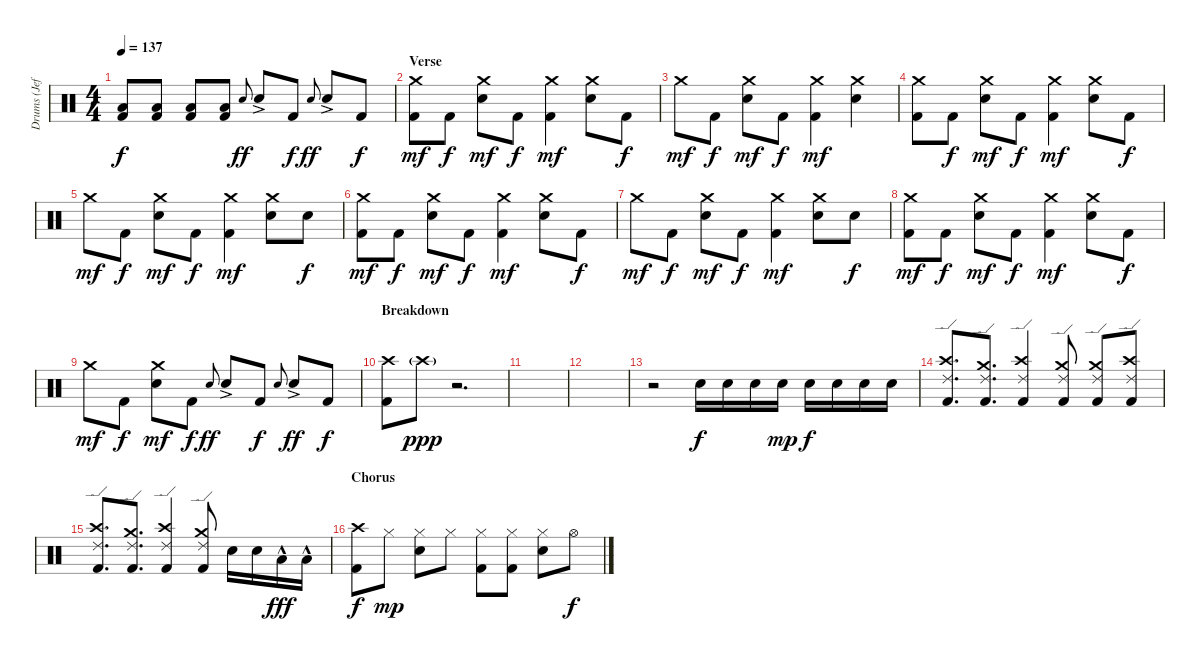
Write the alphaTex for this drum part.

\track ("Drums (Jeff)" "Drums (Jef") {instrument percussion}
\staff {score}
\articulation defaults
\ts (4 4)
\tempo 137
\clef neutral
\ks c
("Low Floor Tom (hit)" "Kick (hit) 2").8{dy f} ("Low Floor Tom (hit)" "Kick (hit) 2").8 ("Low Floor Tom (hit)" "Kick (hit) 2").8 ("Low Floor Tom (hit)" "Kick (hit) 2").8 "Electric Snare (hit)"{h}.8{gr onbeat dy ff} "Electric Snare (hit)"{ac}.8{volume 12} "Kick (hit) 2".8{dy f} "Electric Snare (hit)"{h}.8{gr onbeat dy ff} "Electric Snare (hit)"{ac}.8 "Kick (hit) 2".8{dy f} |
\section ("" "Verse")
("Crash medium (hit)" "Kick (hit) 2").8{dy mf} "Kick (hit) 2".8{dy f} ("Crash medium (hit)" "Electric Snare (hit)").8{dy mf} "Kick (hit) 2".8{dy f} ("Crash medium (hit)" "Kick (hit) 2").4{dy mf} ("Crash medium (hit)" "Electric Snare (hit)").8 "Kick (hit) 2".8{dy f} |
"Crash medium (hit)".8{dy mf} "Kick (hit) 2".8{dy f} ("Crash medium (hit)" "Electric Snare (hit)").8{dy mf} "Kick (hit) 2".8{dy f} ("Crash medium (hit)" "Kick (hit) 2").4{dy mf} ("Crash medium (hit)" "Electric Snare (hit)").4 |
("Crash medium (hit)" "Kick (hit) 2").8 "Kick (hit) 2".8{dy f} ("Crash medium (hit)" "Electric Snare (hit)").8{dy mf} "Kick (hit) 2".8{dy f} ("Crash medium (hit)" "Kick (hit) 2").4{dy mf} ("Crash medium (hit)" "Electric Snare (hit)").8 "Kick (hit) 2".8{dy f} |
"Crash medium (hit)".8{dy mf} "Kick (hit) 2".8{dy f} ("Crash medium (hit)" "Electric Snare (hit)").8{dy mf} "Kick (hit) 2".8{dy f} ("Crash medium (hit)" "Kick (hit) 2").4{dy mf} ("Crash medium (hit)" "Electric Snare (hit)").8 "Electric Snare (hit)".8{dy f} |
("Crash medium (hit)" "Kick (hit) 2").8{dy mf} "Kick (hit) 2".8{dy f} ("Crash medium (hit)" "Electric Snare (hit)").8{dy mf} "Kick (hit) 2".8{dy f} ("Crash medium (hit)" "Kick (hit) 2").4{dy mf} ("Crash medium (hit)" "Electric Snare (hit)").8 "Kick (hit) 2".8{dy f} |
"Crash medium (hit)".8{dy mf} "Kick (hit) 2".8{dy f} ("Crash medium (hit)" "Electric Snare (hit)").8{dy mf} "Kick (hit) 2".8{dy f} ("Crash medium (hit)" "Kick (hit) 2").4{dy mf} ("Crash medium (hit)" "Electric Snare (hit)").8 "Electric Snare (hit)".8{dy f} |
("Crash medium (hit)" "Kick (hit) 2").8{dy mf} "Kick (hit) 2".8{dy f} ("Crash medium (hit)" "Electric Snare (hit)").8{dy mf} "Kick (hit) 2".8{dy f} ("Crash medium (hit)" "Kick (hit) 2").4{dy mf} ("Crash medium (hit)" "Electric Snare (hit)").8 "Kick (hit) 2".8{dy f} |
"Crash medium (hit)".8{dy mf} "Kick (hit) 2".8{dy f} ("Crash medium (hit)" "Electric Snare (hit)").8{dy mf} "Kick (hit) 2".8{dy f} "Electric Snare (hit)"{h}.8{gr onbeat dy ff} "Electric Snare (hit)"{ac}.8 "Kick (hit) 2".8{dy f} "Electric Snare (hit)"{h}.8{gr onbeat} "Electric Snare (hit)"{ac}.8{dy ff} "Kick (hit) 2".8{dy f} |
\section ("" "Breakdown")
("Crash high (hit)" "Kick (hit) 2").8 "Crash high (hit)"{g}.8{dy ppp} r.2{d} |
|
|
r.2 "Electric Snare (hit)".16{dy f volume 12} "Electric Snare (hit)".16 "Electric Snare (hit)".16 "Electric Snare (hit)".16{dy mp} "Electric Snare (hit)".16{dy f} "Electric Snare (hit)".16 "Electric Snare (hit)".16 "Electric Snare (hit)".16 |
("Ride (edge) 2" "Crash high (hit)" "Kick (hit) 2").8{d} ("Ride (edge) 2" "Crash medium (hit)" "Kick (hit) 2").8{d} ("Ride (edge) 2" "Crash high (hit)" "Kick (hit) 2").4 ("Ride (edge) 2" "Crash medium (hit)" "Kick (hit) 2").8 ("Ride (edge) 2" "Crash medium (hit)" "Kick (hit) 2").8 ("Ride (edge) 2" "Crash high (hit)" "Kick (hit) 2").8 |
("Ride (edge) 2" "Crash high (hit)" "Kick (hit) 2").8{d} ("Ride (edge) 2" "Crash medium (hit)" "Kick (hit) 2").8{d} ("Ride (edge) 2" "Crash high (hit)" "Kick (hit) 2").4 ("Ride (edge) 2" "Crash medium (hit)" "Kick (hit) 2").8 "Electric Snare (hit)".16 "Electric Snare (hit)".16 "Low Floor Tom (hit)"{hac}.16{dy fff} "Low Floor Tom (hit)"{hac}.16 |
\section ("" "Chorus")
("Crash high (hit)" "Kick (hit) 2").8{dy f} "Hi-Hat (closed)".8{dy mp} ("Hi-Hat (closed)" "Electric Snare (hit)").8 "Hi-Hat (closed)".8 ("Hi-Hat (closed)" "Kick (hit) 2").8 ("Hi-Hat (closed)" "Kick (hit) 2").8 ("Hi-Hat (closed)" "Electric Snare (hit)").8 "Hi-Hat (open)".8{dy f}
